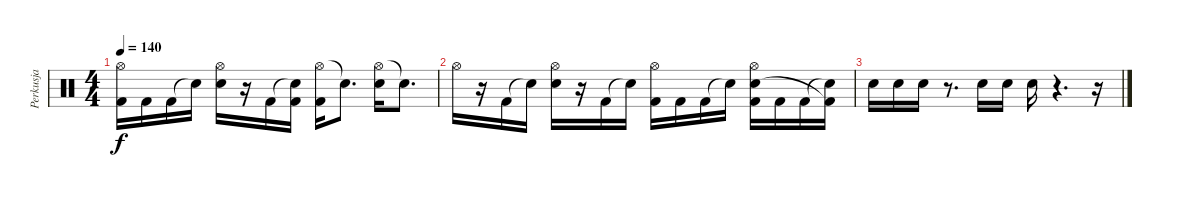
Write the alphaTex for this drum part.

\track ("Perkusja" "Perkusja") {instrument percussion}
\staff {score}
\articulation defaults
\ts (4 4)
\tempo 140
\clef neutral
\ks c
("Hi-Hat (open)" "Kick (hit) 2").16{dy f} "Kick (hit) 2".16 "Kick (hit) 2".16 "Snare (hit)"{t}.16 ("Hi-Hat (open)" "Snare (hit) 2").16 r.16 "Kick (hit) 2".16 ("Snare (hit)"{t} "Kick (hit) 2").16 ("Hi-Hat (open)" "Kick (hit) 2").16 "Snare (hit)"{t}.8{d} ("Hi-Hat (open)" "Snare (hit) 2").16 "Snare (hit)"{t}.8{d} |
"Hi-Hat (open)".16 r.16 "Kick (hit) 2".16 "Snare (hit)"{t}.16 ("Hi-Hat (open)" "Snare (hit) 2").16 r.16 "Kick (hit) 2".16 "Snare (hit)"{t}.16 ("Hi-Hat (open)" "Kick (hit) 2").16 "Kick (hit) 2".16 "Kick (hit) 2".16 "Snare (hit)"{t}.16 ("Hi-Hat (open)" "Snare (hit) 2" "Kick (hit) 2").16 "Kick (hit) 2".16 "Kick (hit) 2".16 ("Snare (hit)"{t} "Kick (hit) 2"{t}).16 |
"Snare (hit) 2".16 "Snare (hit) 2".16 "Snare (hit) 2".16 r.8{d} "Snare (hit) 2".16 "Snare (hit) 2".16 "Snare (hit) 2".16 r.4{d} r.16
